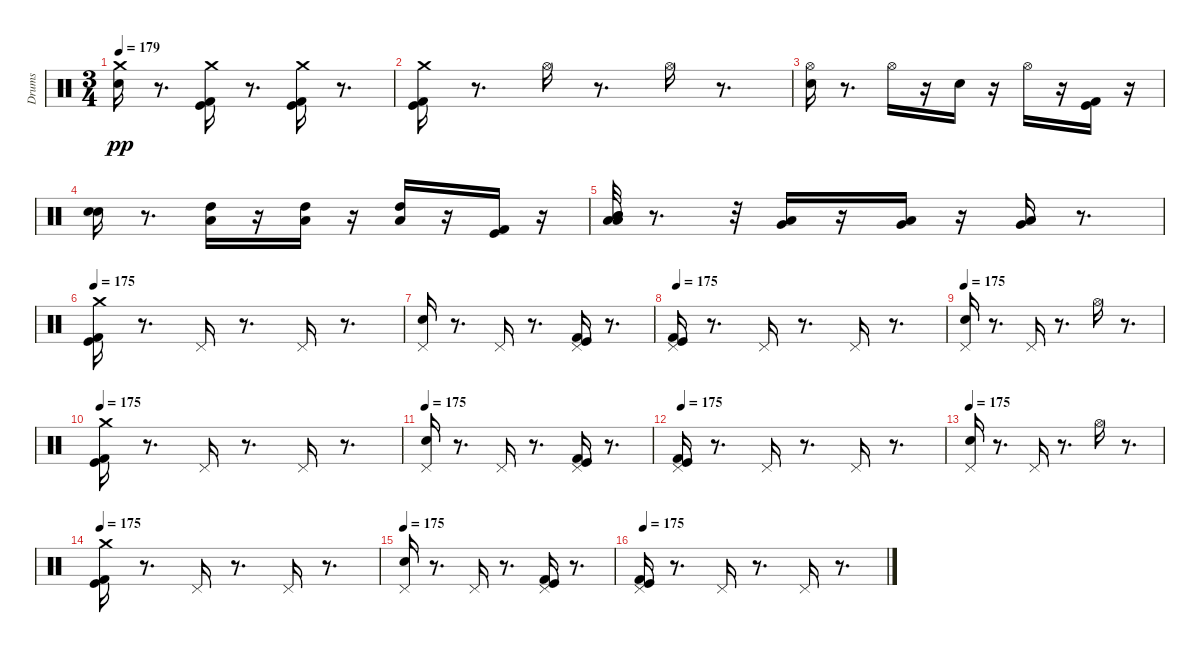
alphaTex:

\track ("Drums" "Drums") {instrument percussion}
\staff {score}
\articulation defaults
\ts (3 4)
\tempo 179
\clef neutral
\ks c
("Crash medium (hit)" "Snare (hit) 2").16{dy pp} r.8{d} ("Crash medium (hit)" "Kick (hit)" "Kick (hit) 2").16 r.8{d} ("Kick (hit)" "Crash medium (hit)" "Kick (hit) 2").16 r.8{d} |
("Crash medium (hit)" "Kick (hit) 2" "Kick (hit)").16 r.8{d} "Hi-Hat (open)".16 r.8{d} "Hi-Hat (open)".16 r.8{d} |
("Snare (hit) 2" "Hi-Hat (open)").16 r.8{d} "Hi-Hat (open)".16 r.16 "Snare (hit) 2".16 r.16 "Hi-Hat (open)".16 r.16 ("Kick (hit) 2" "Kick (hit)").16 r.16 |
("Snare (hit) 2" "Snare (hit) 2").16 r.8{d} ("Low Tom (hit)" "High Tom (hit)").16 r.16 ("Low Tom (hit)" "High Tom (hit)").16 r.16 ("Low Tom (hit)" "High Tom (hit)").16 r.16 ("Kick (hit) 2" "Kick (hit)").16 r.16 |
("Mid Tom (hit)" "Low Tom (hit)" "Mid Tom (hit)" "Low Tom (hit)").32 r.8{d} r.32 ("Very Low Tom (hit)" "Low Tom (hit)").16 r.16 ("Very Low Tom (hit)" "Low Tom (hit)").16 r.16 ("Very Low Tom (hit)" "Low Tom (hit)").16 r.8{d} |
\tempo 175
("Crash medium (hit)" "Kick (hit) 2" "Kick (hit)").16 r.8{d} "Pedal Hi-Hat (hit)".16 r.8{d} "Pedal Hi-Hat (hit)".16 r.8{d} |
("Pedal Hi-Hat (hit)" "Snare (hit) 2").16 r.8{d} "Pedal Hi-Hat (hit)".16 r.8{d} ("Pedal Hi-Hat (hit)" "Kick (hit) 2" "Kick (hit)").16 r.8{d} |
\tempo 175
("Pedal Hi-Hat (hit)" "Kick (hit) 2" "Kick (hit)").16 r.8{d} "Pedal Hi-Hat (hit)".16 r.8{d} "Pedal Hi-Hat (hit)".16 r.8{d} |
\tempo 175
("Pedal Hi-Hat (hit)" "Snare (hit) 2").16 r.8{d} "Pedal Hi-Hat (hit)".16 r.8{d} "Hi-Hat (open)".16 r.8{d} |
\tempo 175
("Crash medium (hit)" "Kick (hit) 2" "Kick (hit)").16 r.8{d} "Pedal Hi-Hat (hit)".16 r.8{d} "Pedal Hi-Hat (hit)".16 r.8{d} |
\tempo 175
("Pedal Hi-Hat (hit)" "Snare (hit) 2").16 r.8{d} "Pedal Hi-Hat (hit)".16 r.8{d} ("Pedal Hi-Hat (hit)" "Kick (hit) 2" "Kick (hit)").16 r.8{d} |
\tempo 175
("Pedal Hi-Hat (hit)" "Kick (hit) 2" "Kick (hit)").16 r.8{d} "Pedal Hi-Hat (hit)".16 r.8{d} "Pedal Hi-Hat (hit)".16 r.8{d} |
\tempo 175
("Pedal Hi-Hat (hit)" "Snare (hit) 2").16 r.8{d} "Pedal Hi-Hat (hit)".16 r.8{d} "Hi-Hat (open)".16 r.8{d} |
\tempo 175
("Crash medium (hit)" "Kick (hit) 2" "Kick (hit)").16 r.8{d} "Pedal Hi-Hat (hit)".16 r.8{d} "Pedal Hi-Hat (hit)".16 r.8{d} |
\tempo 175
("Pedal Hi-Hat (hit)" "Snare (hit) 2").16 r.8{d} "Pedal Hi-Hat (hit)".16 r.8{d} ("Pedal Hi-Hat (hit)" "Kick (hit) 2" "Kick (hit)").16 r.8{d} |
\tempo 175
("Pedal Hi-Hat (hit)" "Kick (hit) 2" "Kick (hit)").16 r.8{d} "Pedal Hi-Hat (hit)".16 r.8{d} "Pedal Hi-Hat (hit)".16 r.8{d}
